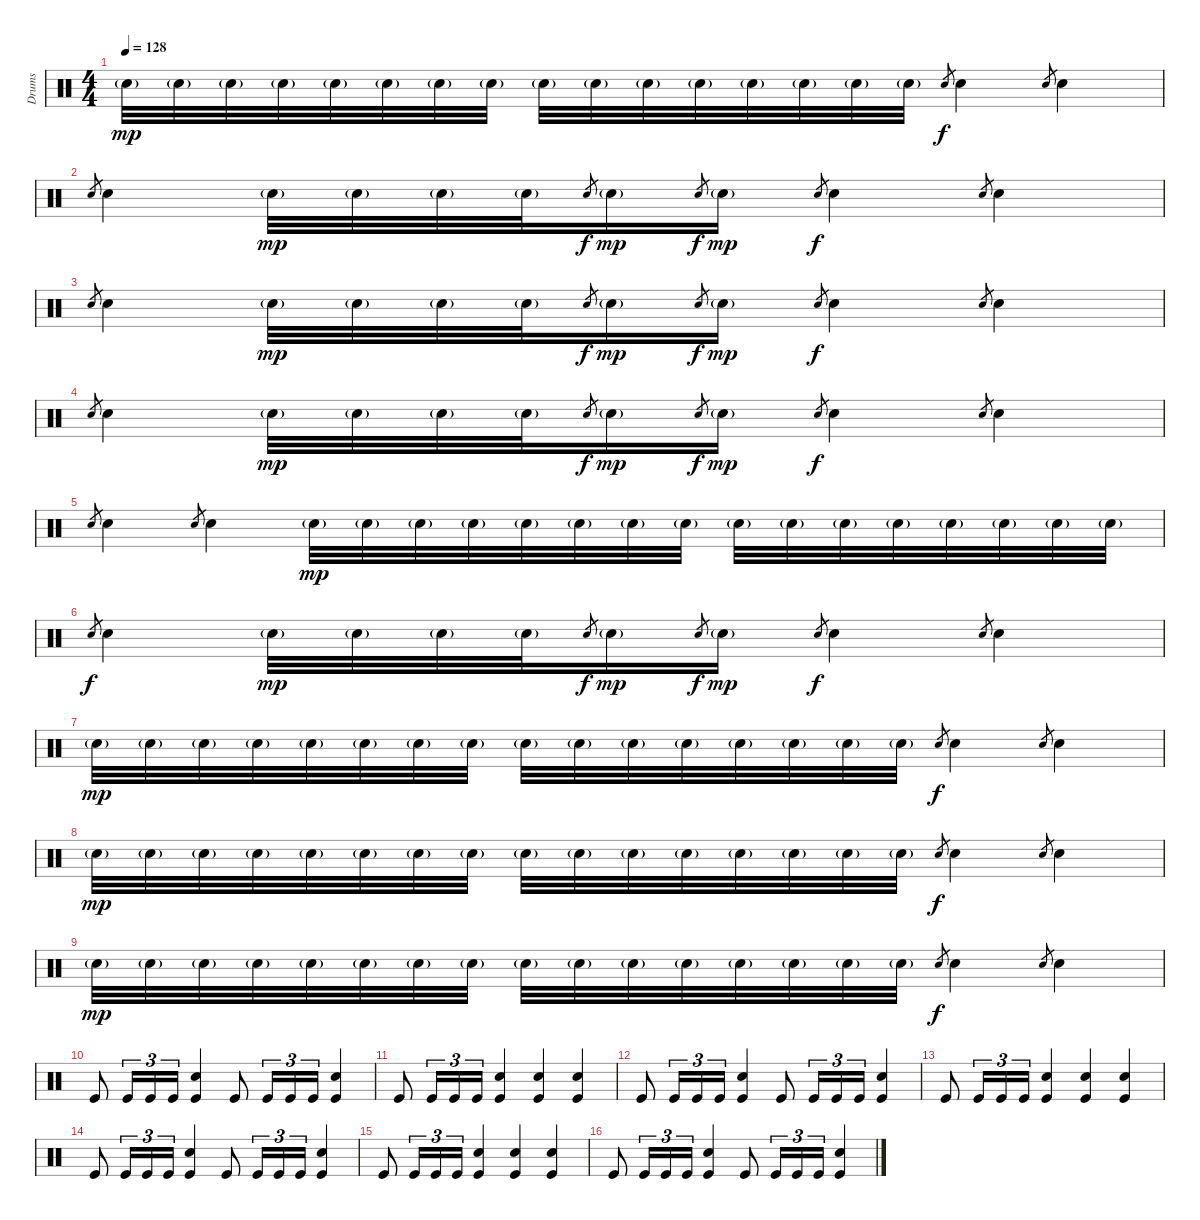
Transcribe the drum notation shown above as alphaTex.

\track ("Drums" "Drums") {instrument percussion}
\staff {score}
\articulation defaults
\ts (4 4)
\tempo 128
\clef neutral
\ks c "Snare (hit) 2"{g}.32{dy mp} "Snare (hit) 2"{g}.32 "Snare (hit) 2"{g}.32 "Snare (hit) 2"{g}.32 "Snare (hit) 2"{g}.32 "Snare (hit) 2"{g}.32 "Snare (hit) 2"{g}.32 "Snare (hit) 2"{g}.32 "Snare (hit) 2"{g}.32 "Snare (hit) 2"{g}.32 "Snare (hit) 2"{g}.32 "Snare (hit) 2"{g}.32 "Snare (hit) 2"{g}.32 "Snare (hit) 2"{g}.32 "Snare (hit) 2"{g}.32 "Snare (hit) 2"{g}.32 "Snare (hit) 2".8{gr dy f} "Snare (hit) 2".4 "Snare (hit) 2".8{gr} "Snare (hit) 2".4
|
"Snare (hit) 2".8{gr} "Snare (hit) 2".4{volume 13} "Snare (hit) 2"{g}.32{dy mp} "Snare (hit) 2"{g}.32 "Snare (hit) 2"{g}.32 "Snare (hit) 2"{g}.32 "Snare (hit) 2".8{gr dy f} "Snare (hit) 2"{g}.16{dy mp} "Snare (hit) 2".8{gr dy f} "Snare (hit) 2"{g}.16{dy mp} "Snare (hit) 2".8{gr dy f} "Snare (hit) 2".4 "Snare (hit) 2".8{gr} "Snare (hit) 2".4 |
"Snare (hit) 2".8{gr} "Snare (hit) 2".4 "Snare (hit) 2"{g}.32{dy mp} "Snare (hit) 2"{g}.32 "Snare (hit) 2"{g}.32 "Snare (hit) 2"{g}.32 "Snare (hit) 2".8{gr dy f} "Snare (hit) 2"{g}.16{dy mp} "Snare (hit) 2".8{gr dy f} "Snare (hit) 2"{g}.16{dy mp} "Snare (hit) 2".8{gr dy f} "Snare (hit) 2".4 "Snare (hit) 2".8{gr} "Snare (hit) 2".4 |
"Snare (hit) 2".8{gr} "Snare (hit) 2".4 "Snare (hit) 2"{g}.32{dy mp} "Snare (hit) 2"{g}.32 "Snare (hit) 2"{g}.32 "Snare (hit) 2"{g}.32 "Snare (hit) 2".8{gr dy f} "Snare (hit) 2"{g}.16{dy mp} "Snare (hit) 2".8{gr dy f} "Snare (hit) 2"{g}.16{dy mp} "Snare (hit) 2".8{gr dy f} "Snare (hit) 2".4 "Snare (hit) 2".8{gr} "Snare (hit) 2".4 |
"Snare (hit) 2".8{gr} "Snare (hit) 2".4 "Snare (hit) 2".8{gr} "Snare (hit) 2".4 "Snare (hit) 2"{g}.32{dy mp} "Snare (hit) 2"{g}.32 "Snare (hit) 2"{g}.32 "Snare (hit) 2"{g}.32 "Snare (hit) 2"{g}.32 "Snare (hit) 2"{g}.32 "Snare (hit) 2"{g}.32 "Snare (hit) 2"{g}.32 "Snare (hit) 2"{g}.32 "Snare (hit) 2"{g}.32 "Snare (hit) 2"{g}.32 "Snare (hit) 2"{g}.32 "Snare (hit) 2"{g}.32 "Snare (hit) 2"{g}.32 "Snare (hit) 2"{g}.32 "Snare (hit) 2"{g}.32 |
"Snare (hit) 2".8{gr dy f} "Snare (hit) 2".4 "Snare (hit) 2"{g}.32{dy mp} "Snare (hit) 2"{g}.32 "Snare (hit) 2"{g}.32 "Snare (hit) 2"{g}.32 "Snare (hit) 2".8{gr dy f} "Snare (hit) 2"{g}.16{dy mp} "Snare (hit) 2".8{gr dy f} "Snare (hit) 2"{g}.16{dy mp} "Snare (hit) 2".8{gr dy f} "Snare (hit) 2".4 "Snare (hit) 2".8{gr} "Snare (hit) 2".4 |
"Snare (hit) 2"{g}.32{dy mp} "Snare (hit) 2"{g}.32 "Snare (hit) 2"{g}.32 "Snare (hit) 2"{g}.32 "Snare (hit) 2"{g}.32 "Snare (hit) 2"{g}.32 "Snare (hit) 2"{g}.32 "Snare (hit) 2"{g}.32 "Snare (hit) 2"{g}.32 "Snare (hit) 2"{g}.32 "Snare (hit) 2"{g}.32 "Snare (hit) 2"{g}.32 "Snare (hit) 2"{g}.32 "Snare (hit) 2"{g}.32 "Snare (hit) 2"{g}.32 "Snare (hit) 2"{g}.32 "Snare (hit) 2".8{gr dy f} "Snare (hit) 2".4 "Snare (hit) 2".8{gr} "Snare (hit) 2".4 |
"Snare (hit) 2"{g}.32{dy mp} "Snare (hit) 2"{g}.32 "Snare (hit) 2"{g}.32 "Snare (hit) 2"{g}.32 "Snare (hit) 2"{g}.32 "Snare (hit) 2"{g}.32 "Snare (hit) 2"{g}.32 "Snare (hit) 2"{g}.32 "Snare (hit) 2"{g}.32 "Snare (hit) 2"{g}.32 "Snare (hit) 2"{g}.32 "Snare (hit) 2"{g}.32 "Snare (hit) 2"{g}.32 "Snare (hit) 2"{g}.32 "Snare (hit) 2"{g}.32 "Snare (hit) 2"{g}.32 "Snare (hit) 2".8{gr dy f} "Snare (hit) 2".4 "Snare (hit) 2".8{gr} "Snare (hit) 2".4 |
"Snare (hit) 2"{g}.32{dy mp} "Snare (hit) 2"{g}.32 "Snare (hit) 2"{g}.32 "Snare (hit) 2"{g}.32 "Snare (hit) 2"{g}.32 "Snare (hit) 2"{g}.32 "Snare (hit) 2"{g}.32 "Snare (hit) 2"{g}.32 "Snare (hit) 2"{g}.32 "Snare (hit) 2"{g}.32 "Snare (hit) 2"{g}.32 "Snare (hit) 2"{g}.32 "Snare (hit) 2"{g}.32 "Snare (hit) 2"{g}.32 "Snare (hit) 2"{g}.32 "Snare (hit) 2"{g}.32 "Snare (hit) 2".8{gr dy f} "Snare (hit) 2".4 "Snare (hit) 2".8{gr} "Snare (hit) 2".4 |
"Kick (hit)".8{volume 16} "Kick (hit)".16{tu (3 2)} "Kick (hit)".16{tu (3 2)} "Kick (hit)".16{tu (3 2)} ("Snare (hit) 2" "Kick (hit)").4 "Kick (hit)".8 "Kick (hit)".16{tu (3 2)} "Kick (hit)".16{tu (3 2)} "Kick (hit)".16{tu (3 2)} ("Snare (hit) 2" "Kick (hit)").4 |
"Kick (hit)".8 "Kick (hit)".16{tu (3 2)} "Kick (hit)".16{tu (3 2)} "Kick (hit)".16{tu (3 2)} ("Snare (hit) 2" "Kick (hit)").4 ("Snare (hit) 2" "Kick (hit)").4 ("Snare (hit) 2" "Kick (hit)").4 |
"Kick (hit)".8 "Kick (hit)".16{tu (3 2)} "Kick (hit)".16{tu (3 2)} "Kick (hit)".16{tu (3 2)} ("Snare (hit) 2" "Kick (hit)").4 "Kick (hit)".8 "Kick (hit)".16{tu (3 2)} "Kick (hit)".16{tu (3 2)} "Kick (hit)".16{tu (3 2)} ("Snare (hit) 2" "Kick (hit)").4 |
"Kick (hit)".8 "Kick (hit)".16{tu (3 2)} "Kick (hit)".16{tu (3 2)} "Kick (hit)".16{tu (3 2)} ("Snare (hit) 2" "Kick (hit)").4 ("Snare (hit) 2" "Kick (hit)").4 ("Snare (hit) 2" "Kick (hit)").4 |
"Kick (hit)".8 "Kick (hit)".16{tu (3 2)} "Kick (hit)".16{tu (3 2)} "Kick (hit)".16{tu (3 2)} ("Snare (hit) 2" "Kick (hit)").4 "Kick (hit)".8 "Kick (hit)".16{tu (3 2)} "Kick (hit)".16{tu (3 2)} "Kick (hit)".16{tu (3 2)} ("Snare (hit) 2" "Kick (hit)").4 |
"Kick (hit)".8 "Kick (hit)".16{tu (3 2)} "Kick (hit)".16{tu (3 2)} "Kick (hit)".16{tu (3 2)} ("Snare (hit) 2" "Kick (hit)").4 ("Snare (hit) 2" "Kick (hit)").4 ("Snare (hit) 2" "Kick (hit)").4 |
"Kick (hit)".8 "Kick (hit)".16{tu (3 2)} "Kick (hit)".16{tu (3 2)} "Kick (hit)".16{tu (3 2)} ("Snare (hit) 2" "Kick (hit)").4 "Kick (hit)".8 "Kick (hit)".16{tu (3 2)} "Kick (hit)".16{tu (3 2)} "Kick (hit)".16{tu (3 2)} ("Snare (hit) 2" "Kick (hit)").4
